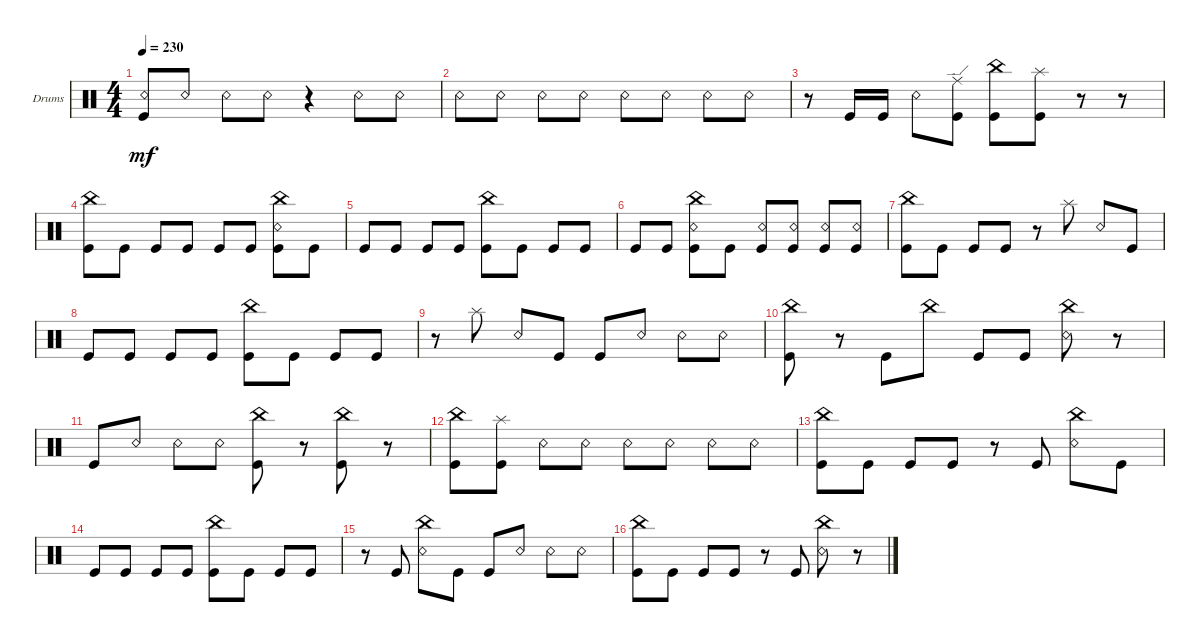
\bracketExtendMode groupsimilarinstruments
\firstSystemTrackNameOrientation horizontal
\otherSystemsTrackNameOrientation horizontal
\track ("Drumkit" "Drums") {instrument percussion}
\staff {score}
\articulation defaults
\ts (4 4)
\tempo 230
\clef neutral
\ks c
("Snare (rim shot)" "Kick (hit)").8{dy mf} "Snare (rim shot)".8 "Snare (rim shot)".8 "Snare (rim shot)".8 r.4 "Snare (rim shot)".8 "Snare (rim shot)".8 |
"Snare (rim shot)".8 "Snare (rim shot)".8 "Snare (rim shot)".8 "Snare (rim shot)".8 "Snare (rim shot)".8 "Snare (rim shot)".8 "Snare (rim shot)".8 "Snare (rim shot)".8 |
r.8 "Kick (hit)".16 "Kick (hit)".16 "Snare (rim shot)".8 ("Ride (edge)" "Kick (hit)").8 ("China (hit)" "Kick (hit)").8 ("Splash (hit)" "Kick (hit)").8 r.8 r.8 |
("Kick (hit)" "China (hit)").8 "Kick (hit)".8 "Kick (hit)".8 "Kick (hit)".8 "Kick (hit)".8 "Kick (hit)".8 ("Kick (hit)" "Snare (rim shot)" "China (hit)").8 "Kick (hit)".8 |
"Kick (hit)".8 "Kick (hit)".8 "Kick (hit)".8 "Kick (hit)".8 ("Kick (hit)" "China (hit)").8 "Kick (hit)".8 "Kick (hit)".8 "Kick (hit)".8 |
"Kick (hit)".8 "Kick (hit)".8 ("Kick (hit)" "Snare (rim shot)" "China (hit)").8 "Kick (hit)".8 ("Kick (hit)" "Snare (rim shot)").8 ("Kick (hit)" "Snare (rim shot)").8 ("Kick (hit)" "Snare (rim shot)").8 ("Kick (hit)" "Snare (rim shot)").8 |
("Kick (hit)" "China (hit)").8 "Kick (hit)".8 "Kick (hit)".8 "Kick (hit)".8 r.8 "Splash (hit)".8 "Snare (rim shot)".8 "Kick (hit)".8 |
"Kick (hit)".8 "Kick (hit)".8 "Kick (hit)".8 "Kick (hit)".8 ("Kick (hit)" "China (hit)").8 "Kick (hit)".8 "Kick (hit)".8 "Kick (hit)".8 |
r.8 "Splash (hit)".8 "Snare (rim shot)".8 "Kick (hit)".8 "Kick (hit)".8 "Snare (rim shot)".8 "Snare (rim shot)".8 "Snare (rim shot)".8 |
("Kick (hit)" "China (hit)").8 r.8 "Kick (hit)".8 "China (hit)".8 "Kick (hit)".8 "Kick (hit)".8 ("Snare (rim shot)" "China (hit)").8 r.8 |
"Kick (hit)".8 "Snare (rim shot)".8 "Snare (rim shot)".8 "Snare (rim shot)".8 ("China (hit)" "Kick (hit)").8 r.8 ("Kick (hit)" "China (hit)").8 r.8 |
("Kick (hit)" "China (hit)").8 ("Kick (hit)" "Splash (hit)").8 "Snare (rim shot)".8 "Snare (rim shot)".8 "Snare (rim shot)".8 "Snare (rim shot)".8 "Snare (rim shot)".8 "Snare (rim shot)".8 |
("Kick (hit)" "China (hit)").8 "Kick (hit)".8 "Kick (hit)".8 "Kick (hit)".8 r.8 "Kick (hit)".8 ("China (hit)" "Snare (rim shot)").8 "Kick (hit)".8 |
"Kick (hit)".8 "Kick (hit)".8 "Kick (hit)".8 "Kick (hit)".8 ("Kick (hit)" "China (hit)").8 "Kick (hit)".8 "Kick (hit)".8 "Kick (hit)".8 |
r.8 "Kick (hit)".8 ("Snare (rim shot)" "China (hit)").8 "Kick (hit)".8 "Kick (hit)".8 "Snare (rim shot)".8 "Snare (rim shot)".8 "Snare (rim shot)".8 |
("Kick (hit)" "China (hit)").8 "Kick (hit)".8 "Kick (hit)".8 "Kick (hit)".8 r.8 "Kick (hit)".8 ("Snare (rim shot)" "China (hit)").8 r.8
